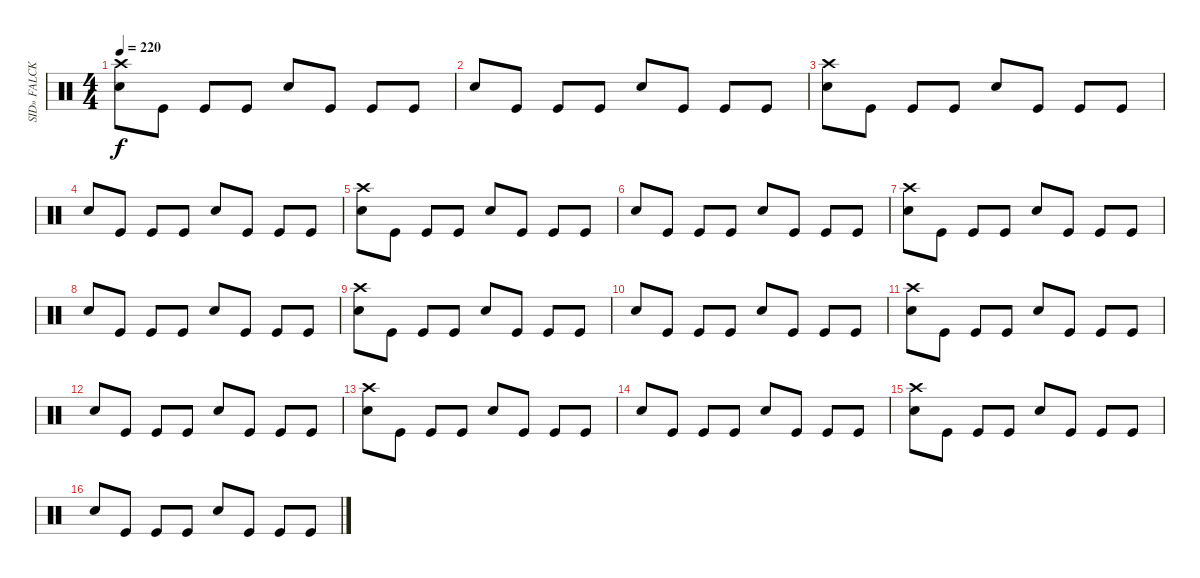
\track ("SID» FALCK- Drums " "SID» FALCK") {instrument percussion}
\staff {score}
\articulation defaults
\ts (4 4)
\tempo 220
\clef neutral
\ks c
("Crash high (hit)" "Electric Snare (hit)").8{dy f} "Kick (hit)".8 "Kick (hit)".8 "Kick (hit)".8 "Electric Snare (hit)".8 "Kick (hit)".8 "Kick (hit)".8 "Kick (hit)".8 |
"Electric Snare (hit)".8 "Kick (hit)".8 "Kick (hit)".8 "Kick (hit)".8 "Electric Snare (hit)".8 "Kick (hit)".8 "Kick (hit)".8 "Kick (hit)".8 |
("Crash high (hit)" "Electric Snare (hit)").8 "Kick (hit)".8 "Kick (hit)".8 "Kick (hit)".8 "Electric Snare (hit)".8 "Kick (hit)".8 "Kick (hit)".8 "Kick (hit)".8 |
"Electric Snare (hit)".8 "Kick (hit)".8 "Kick (hit)".8 "Kick (hit)".8 "Electric Snare (hit)".8 "Kick (hit)".8 "Kick (hit)".8 "Kick (hit)".8 |
("Crash high (hit)" "Electric Snare (hit)").8 "Kick (hit)".8 "Kick (hit)".8 "Kick (hit)".8 "Electric Snare (hit)".8 "Kick (hit)".8 "Kick (hit)".8 "Kick (hit)".8 |
"Electric Snare (hit)".8 "Kick (hit)".8 "Kick (hit)".8 "Kick (hit)".8 "Electric Snare (hit)".8 "Kick (hit)".8 "Kick (hit)".8 "Kick (hit)".8 |
("Crash high (hit)" "Electric Snare (hit)").8 "Kick (hit)".8 "Kick (hit)".8 "Kick (hit)".8 "Electric Snare (hit)".8 "Kick (hit)".8 "Kick (hit)".8 "Kick (hit)".8 |
"Electric Snare (hit)".8 "Kick (hit)".8 "Kick (hit)".8 "Kick (hit)".8 "Electric Snare (hit)".8 "Kick (hit)".8 "Kick (hit)".8 "Kick (hit)".8 |
("Crash high (hit)" "Electric Snare (hit)").8 "Kick (hit)".8 "Kick (hit)".8 "Kick (hit)".8 "Electric Snare (hit)".8 "Kick (hit)".8 "Kick (hit)".8 "Kick (hit)".8 |
"Electric Snare (hit)".8 "Kick (hit)".8 "Kick (hit)".8 "Kick (hit)".8 "Electric Snare (hit)".8 "Kick (hit)".8 "Kick (hit)".8 "Kick (hit)".8 |
("Crash high (hit)" "Electric Snare (hit)").8 "Kick (hit)".8 "Kick (hit)".8 "Kick (hit)".8 "Electric Snare (hit)".8 "Kick (hit)".8 "Kick (hit)".8 "Kick (hit)".8 |
"Electric Snare (hit)".8 "Kick (hit)".8 "Kick (hit)".8 "Kick (hit)".8 "Electric Snare (hit)".8 "Kick (hit)".8 "Kick (hit)".8 "Kick (hit)".8 |
("Crash high (hit)" "Electric Snare (hit)").8 "Kick (hit)".8 "Kick (hit)".8 "Kick (hit)".8 "Electric Snare (hit)".8 "Kick (hit)".8 "Kick (hit)".8 "Kick (hit)".8 |
"Electric Snare (hit)".8 "Kick (hit)".8 "Kick (hit)".8 "Kick (hit)".8 "Electric Snare (hit)".8 "Kick (hit)".8 "Kick (hit)".8 "Kick (hit)".8 |
("Crash high (hit)" "Electric Snare (hit)").8 "Kick (hit)".8 "Kick (hit)".8 "Kick (hit)".8 "Electric Snare (hit)".8 "Kick (hit)".8 "Kick (hit)".8 "Kick (hit)".8 |
"Electric Snare (hit)".8 "Kick (hit)".8 "Kick (hit)".8 "Kick (hit)".8 "Electric Snare (hit)".8 "Kick (hit)".8 "Kick (hit)".8 "Kick (hit)".8
